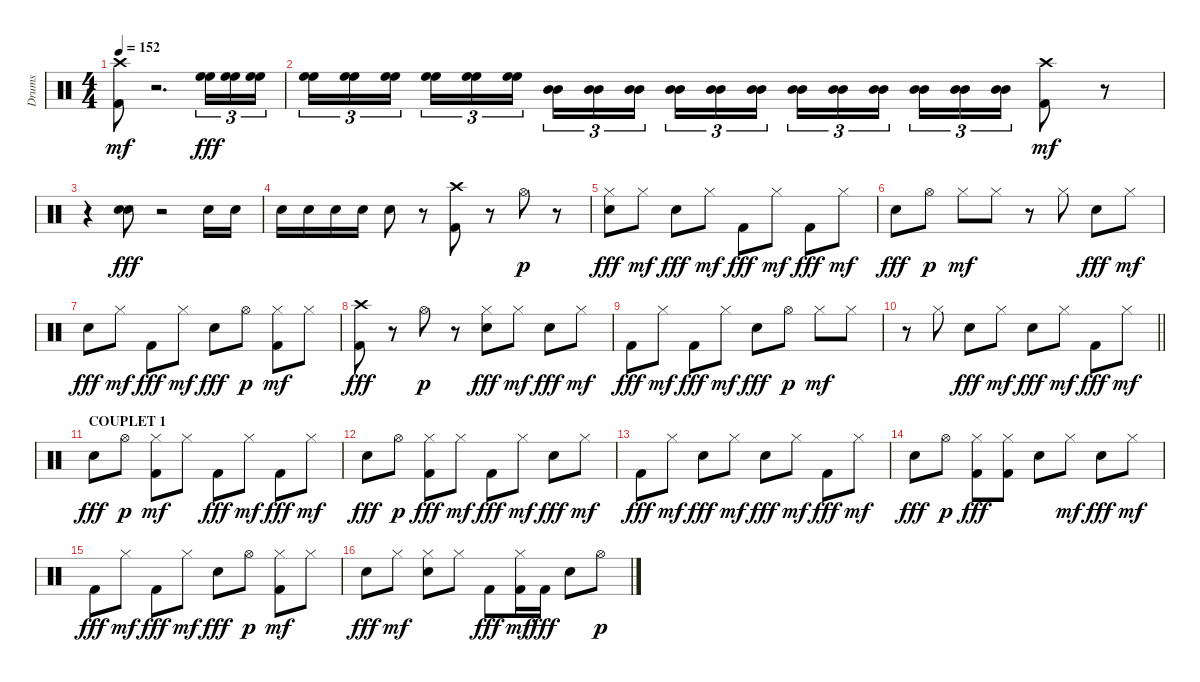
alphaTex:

\track ("Drums" "Drums") {instrument percussion}
\staff {score}
\articulation defaults
\ts (4 4)
\tempo 152
\clef neutral
\ks c
("Kick (hit) 2" "Crash high (hit)").8{dy mf} r.2{d} ("High Floor Tom (hit)" "High Floor Tom (hit)").16{tu (3 2) dy fff} ("High Floor Tom (hit)" "High Floor Tom (hit)").16{tu (3 2)} ("High Floor Tom (hit)" "High Floor Tom (hit)").16{tu (3 2)} |
("High Floor Tom (hit)" "High Floor Tom (hit)").16{tu (3 2)} ("High Floor Tom (hit)" "High Floor Tom (hit)").16{tu (3 2)} ("High Floor Tom (hit)" "High Floor Tom (hit)").16{tu (3 2) beam splitsecondary} ("High Floor Tom (hit)" "High Floor Tom (hit)").16{tu (3 2)} ("High Floor Tom (hit)" "High Floor Tom (hit)").16{tu (3 2)} ("High Floor Tom (hit)" "High Floor Tom (hit)").16{tu (3 2)} ("Mid Tom (hit)" "Mid Tom (hit)").16{tu (3 2)} ("Mid Tom (hit)" "Mid Tom (hit)").16{tu (3 2)} ("Mid Tom (hit)" "Mid Tom (hit)").16{tu (3 2) beam splitsecondary} ("Mid Tom (hit)" "Mid Tom (hit)").16{tu (3 2)} ("Mid Tom (hit)" "Mid Tom (hit)").16{tu (3 2)} ("Mid Tom (hit)" "Mid Tom (hit)").16{tu (3 2)} ("Mid Tom (hit)" "Mid Tom (hit)").16{tu (3 2)} ("Mid Tom (hit)" "Mid Tom (hit)").16{tu (3 2)} ("Mid Tom (hit)" "Mid Tom (hit)").16{tu (3 2) beam splitsecondary} ("Mid Tom (hit)" "Mid Tom (hit)").16{tu (3 2)} ("Mid Tom (hit)" "Mid Tom (hit)").16{tu (3 2)} ("Mid Tom (hit)" "Mid Tom (hit)").16{tu (3 2)} ("Kick (hit) 2" "Crash high (hit)").8{dy mf} r.8 |
r.4 ("Electric Snare (hit)" "Electric Snare (hit)").8{dy fff} r.2 "Electric Snare (hit)".16 "Electric Snare (hit)".16 |
"Electric Snare (hit)".16 "Electric Snare (hit)".16 "Electric Snare (hit)".16 "Electric Snare (hit)".16 "Electric Snare (hit)".8 r.8 ("Crash high (hit)" "Kick (hit) 2").8 r.8 "Hi-Hat (open)".8{dy p} r.8 |
("Hi-Hat (closed)" "Electric Snare (hit)").8{dy fff} "Hi-Hat (closed)".8{dy mf} "Electric Snare (hit)".8{dy fff} "Hi-Hat (closed)".8{dy mf} "Kick (hit) 2".8{dy fff} "Hi-Hat (closed)".8{dy mf} "Kick (hit) 2".8{dy fff} "Hi-Hat (closed)".8{dy mf} |
"Electric Snare (hit)".8{dy fff} "Hi-Hat (open)".8{dy p} "Hi-Hat (closed)".8{dy mf} "Hi-Hat (closed)".8 r.8 "Hi-Hat (closed)".8 "Electric Snare (hit)".8{dy fff} "Hi-Hat (closed)".8{dy mf} |
"Electric Snare (hit)".8{dy fff} "Hi-Hat (closed)".8{dy mf} "Kick (hit) 2".8{dy fff} "Hi-Hat (closed)".8{dy mf} "Electric Snare (hit)".8{dy fff} "Hi-Hat (open)".8{dy p} ("Kick (hit) 2" "Hi-Hat (closed)").8{dy mf} "Hi-Hat (closed)".8 |
("Crash high (hit)" "Kick (hit) 2").8{dy fff} r.8 "Hi-Hat (open)".8{dy p} r.8 ("Hi-Hat (closed)" "Electric Snare (hit)").8{dy fff} "Hi-Hat (closed)".8{dy mf} "Electric Snare (hit)".8{dy fff} "Hi-Hat (closed)".8{dy mf} |
"Kick (hit) 2".8{dy fff} "Hi-Hat (closed)".8{dy mf} "Kick (hit) 2".8{dy fff} "Hi-Hat (closed)".8{dy mf} "Electric Snare (hit)".8{dy fff} "Hi-Hat (open)".8{dy p} "Hi-Hat (closed)".8{dy mf} "Hi-Hat (closed)".8 |
\barLineRight lightlight
r.8 "Hi-Hat (closed)".8 "Electric Snare (hit)".8{dy fff} "Hi-Hat (closed)".8{dy mf} "Electric Snare (hit)".8{dy fff} "Hi-Hat (closed)".8{dy mf} "Kick (hit) 2".8{dy fff} "Hi-Hat (closed)".8{dy mf} |
\section ("" "COUPLET 1")
"Electric Snare (hit)".8{dy fff} "Hi-Hat (open)".8{dy p} ("Kick (hit) 2" "Hi-Hat (closed)").8{dy mf} "Hi-Hat (closed)".8 "Kick (hit) 2".8{dy fff} "Hi-Hat (closed)".8{dy mf} "Kick (hit) 2".8{dy fff} "Hi-Hat (closed)".8{dy mf} |
"Electric Snare (hit)".8{dy fff} "Hi-Hat (open)".8{dy p} ("Hi-Hat (closed)" "Kick (hit) 2").8{dy fff} "Hi-Hat (closed)".8{dy mf} "Kick (hit) 2".8{dy fff} "Hi-Hat (closed)".8{dy mf} "Electric Snare (hit)".8{dy fff} "Hi-Hat (closed)".8{dy mf} |
"Kick (hit) 2".8{dy fff} "Hi-Hat (closed)".8{dy mf} "Electric Snare (hit)".8{dy fff} "Hi-Hat (closed)".8{dy mf} "Electric Snare (hit)".8{dy fff} "Hi-Hat (closed)".8{dy mf} "Kick (hit) 2".8{dy fff} "Hi-Hat (closed)".8{dy mf} |
"Electric Snare (hit)".8{dy fff} "Hi-Hat (open)".8{dy p} ("Hi-Hat (closed)" "Kick (hit) 2").8{dy fff} ("Hi-Hat (closed)" "Kick (hit) 2").8 "Electric Snare (hit)".8 "Hi-Hat (closed)".8{dy mf} "Electric Snare (hit)".8{dy fff} "Hi-Hat (closed)".8{dy mf} |
"Kick (hit) 2".8{dy fff} "Hi-Hat (closed)".8{dy mf} "Kick (hit) 2".8{dy fff} "Hi-Hat (closed)".8{dy mf} "Electric Snare (hit)".8{dy fff} "Hi-Hat (open)".8{dy p} ("Kick (hit) 2" "Hi-Hat (closed)").8{dy mf} "Hi-Hat (closed)".8 |
"Electric Snare (hit)".8{dy fff} "Hi-Hat (closed)".8{dy mf} ("Electric Snare (hit)" "Hi-Hat (closed)").8 "Hi-Hat (closed)".8 "Kick (hit) 2".8{dy fff} ("Kick (hit) 2" "Hi-Hat (closed)").16{dy mf} "Kick (hit) 2".16{dy fff} "Electric Snare (hit)".8 "Hi-Hat (open)".8{dy p}
